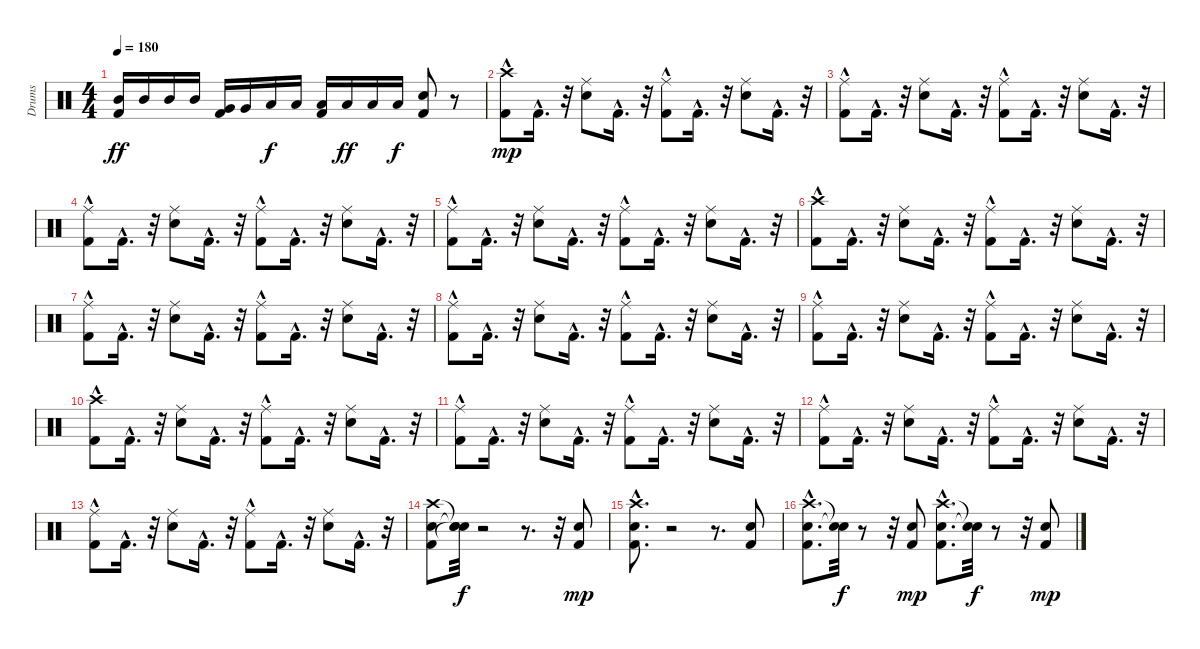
\track ("Drums" "Drums") {instrument percussion}
\staff {score}
\articulation defaults
\ts (4 4)
\tempo 180
\clef neutral
\ks c
("Mid Tom (hit)" "Kick (hit) 2").16{dy ff} "Mid Tom (hit)".16 "Mid Tom (hit)".16 "Mid Tom (hit)".16 ("Very Low Tom (hit)" "Kick (hit) 2").16 "Very Low Tom (hit)".16 "Low Tom (hit)".16{dy f} "Low Tom (hit)".16 ("Low Floor Tom (hit)" "Kick (hit) 2").16 "Low Floor Tom (hit)".16{dy ff} "Low Floor Tom (hit)".16 "Low Floor Tom (hit)".16{dy f} ("Kick (hit) 2" "Snare (hit) 2").8 r.8 |
("Crash high (hit)" "Kick (hit) 2"{hac}).8{dy mp} "Kick (hit) 2"{hac}.16{d} r.32 ("Ride (middle)" "Snare (hit) 2").8 "Kick (hit) 2"{hac}.16{d} r.32 ("Ride (middle)" "Kick (hit) 2"{hac}).8 "Kick (hit) 2"{hac}.16{d} r.32 ("Ride (middle)" "Snare (hit) 2").8 "Kick (hit) 2"{hac}.16{d} r.32 |
("Ride (middle)" "Kick (hit) 2"{hac}).8 "Kick (hit) 2"{hac}.16{d} r.32 ("Ride (middle)" "Snare (hit) 2").8 "Kick (hit) 2"{hac}.16{d} r.32 ("Ride (middle)" "Kick (hit) 2"{hac}).8 "Kick (hit) 2"{hac}.16{d} r.32 ("Ride (middle)" "Snare (hit) 2").8 "Kick (hit) 2"{hac}.16{d} r.32 |
("Ride (middle)" "Kick (hit) 2"{hac}).8 "Kick (hit) 2"{hac}.16{d} r.32 ("Ride (middle)" "Snare (hit) 2").8 "Kick (hit) 2"{hac}.16{d} r.32 ("Ride (middle)" "Kick (hit) 2"{hac}).8 "Kick (hit) 2"{hac}.16{d} r.32 ("Ride (middle)" "Snare (hit) 2").8 "Kick (hit) 2"{hac}.16{d} r.32 |
("Ride (middle)" "Kick (hit) 2"{hac}).8 "Kick (hit) 2"{hac}.16{d} r.32 ("Ride (middle)" "Snare (hit) 2").8 "Kick (hit) 2"{hac}.16{d} r.32 ("Ride (middle)" "Kick (hit) 2"{hac}).8 "Kick (hit) 2"{hac}.16{d} r.32 ("Ride (middle)" "Snare (hit) 2").8 "Kick (hit) 2"{hac}.16{d} r.32 |
("Crash high (hit)" "Kick (hit) 2"{hac}).8 "Kick (hit) 2"{hac}.16{d} r.32 ("Ride (middle)" "Snare (hit) 2").8 "Kick (hit) 2"{hac}.16{d} r.32 ("Ride (middle)" "Kick (hit) 2"{hac}).8 "Kick (hit) 2"{hac}.16{d} r.32 ("Ride (middle)" "Snare (hit) 2").8 "Kick (hit) 2"{hac}.16{d} r.32 |
("Ride (middle)" "Kick (hit) 2"{hac}).8 "Kick (hit) 2"{hac}.16{d} r.32 ("Ride (middle)" "Snare (hit) 2").8 "Kick (hit) 2"{hac}.16{d} r.32 ("Ride (middle)" "Kick (hit) 2"{hac}).8 "Kick (hit) 2"{hac}.16{d} r.32 ("Ride (middle)" "Snare (hit) 2").8 "Kick (hit) 2"{hac}.16{d} r.32 |
("Ride (middle)" "Kick (hit) 2"{hac}).8 "Kick (hit) 2"{hac}.16{d} r.32 ("Ride (middle)" "Snare (hit) 2").8 "Kick (hit) 2"{hac}.16{d} r.32 ("Ride (middle)" "Kick (hit) 2"{hac}).8 "Kick (hit) 2"{hac}.16{d} r.32 ("Ride (middle)" "Snare (hit) 2").8 "Kick (hit) 2"{hac}.16{d} r.32 |
("Ride (middle)" "Kick (hit) 2"{hac}).8 "Kick (hit) 2"{hac}.16{d} r.32 ("Ride (middle)" "Snare (hit) 2").8 "Kick (hit) 2"{hac}.16{d} r.32 ("Ride (middle)" "Kick (hit) 2"{hac}).8 "Kick (hit) 2"{hac}.16{d} r.32 ("Ride (middle)" "Snare (hit) 2").8 "Kick (hit) 2"{hac}.16{d} r.32 |
("Crash high (hit)" "Kick (hit) 2"{hac}).8 "Kick (hit) 2"{hac}.16{d} r.32 ("Ride (middle)" "Snare (hit) 2").8 "Kick (hit) 2"{hac}.16{d} r.32 ("Ride (middle)" "Kick (hit) 2"{hac}).8 "Kick (hit) 2"{hac}.16{d} r.32 ("Ride (middle)" "Snare (hit) 2").8 "Kick (hit) 2"{hac}.16{d} r.32 |
("Ride (middle)" "Kick (hit) 2"{hac}).8 "Kick (hit) 2"{hac}.16{d} r.32 ("Ride (middle)" "Snare (hit) 2").8 "Kick (hit) 2"{hac}.16{d} r.32 ("Ride (middle)" "Kick (hit) 2"{hac}).8 "Kick (hit) 2"{hac}.16{d} r.32 ("Ride (middle)" "Snare (hit) 2").8 "Kick (hit) 2"{hac}.16{d} r.32 |
("Ride (middle)" "Kick (hit) 2"{hac}).8 "Kick (hit) 2"{hac}.16{d} r.32 ("Ride (middle)" "Snare (hit) 2").8 "Kick (hit) 2"{hac}.16{d} r.32 ("Ride (middle)" "Kick (hit) 2"{hac}).8 "Kick (hit) 2"{hac}.16{d} r.32 ("Ride (middle)" "Snare (hit) 2").8 "Kick (hit) 2"{hac}.16{d} r.32 |
("Ride (middle)" "Kick (hit) 2"{hac}).8 "Kick (hit) 2"{hac}.16{d} r.32 ("Ride (middle)" "Snare (hit) 2").8 "Kick (hit) 2"{hac}.16{d} r.32 ("Ride (middle)" "Kick (hit) 2"{hac}).8 "Kick (hit) 2"{hac}.16{d} r.32 ("Ride (middle)" "Snare (hit) 2").8 "Kick (hit) 2"{hac}.16{d} r.32 |
("Crash high (hit)" "Snare (hit) 2" "Kick (hit) 2").8 ("Snare (hit)"{t} "Snare (hit)"{t} "Snare (hit)"{t}).32{dy f} r.2 r.8{d} r.32 ("Snare (hit) 2" "Kick (hit) 2").8{dy mp} |
("Crash high (hit)" "Snare (hit) 2"{hac} "Kick (hit) 2"{hac}).8{d} r.2 r.8{d} ("Snare (hit) 2" "Kick (hit) 2").8 |
("Crash high (hit)" "Snare (hit) 2"{hac} "Kick (hit) 2"{hac}).8{d} ("Snare (hit)"{t} "Snare (hit)"{t}).32{dy f} r.8 r.32 ("Snare (hit) 2" "Kick (hit) 2").8{dy mp} ("Crash high (hit)" "Snare (hit) 2"{hac} "Kick (hit) 2"{hac}).8{d} ("Snare (hit)"{t} "Snare (hit)"{t}).32{dy f} r.8 r.32 ("Snare (hit) 2" "Kick (hit) 2").8{dy mp}
